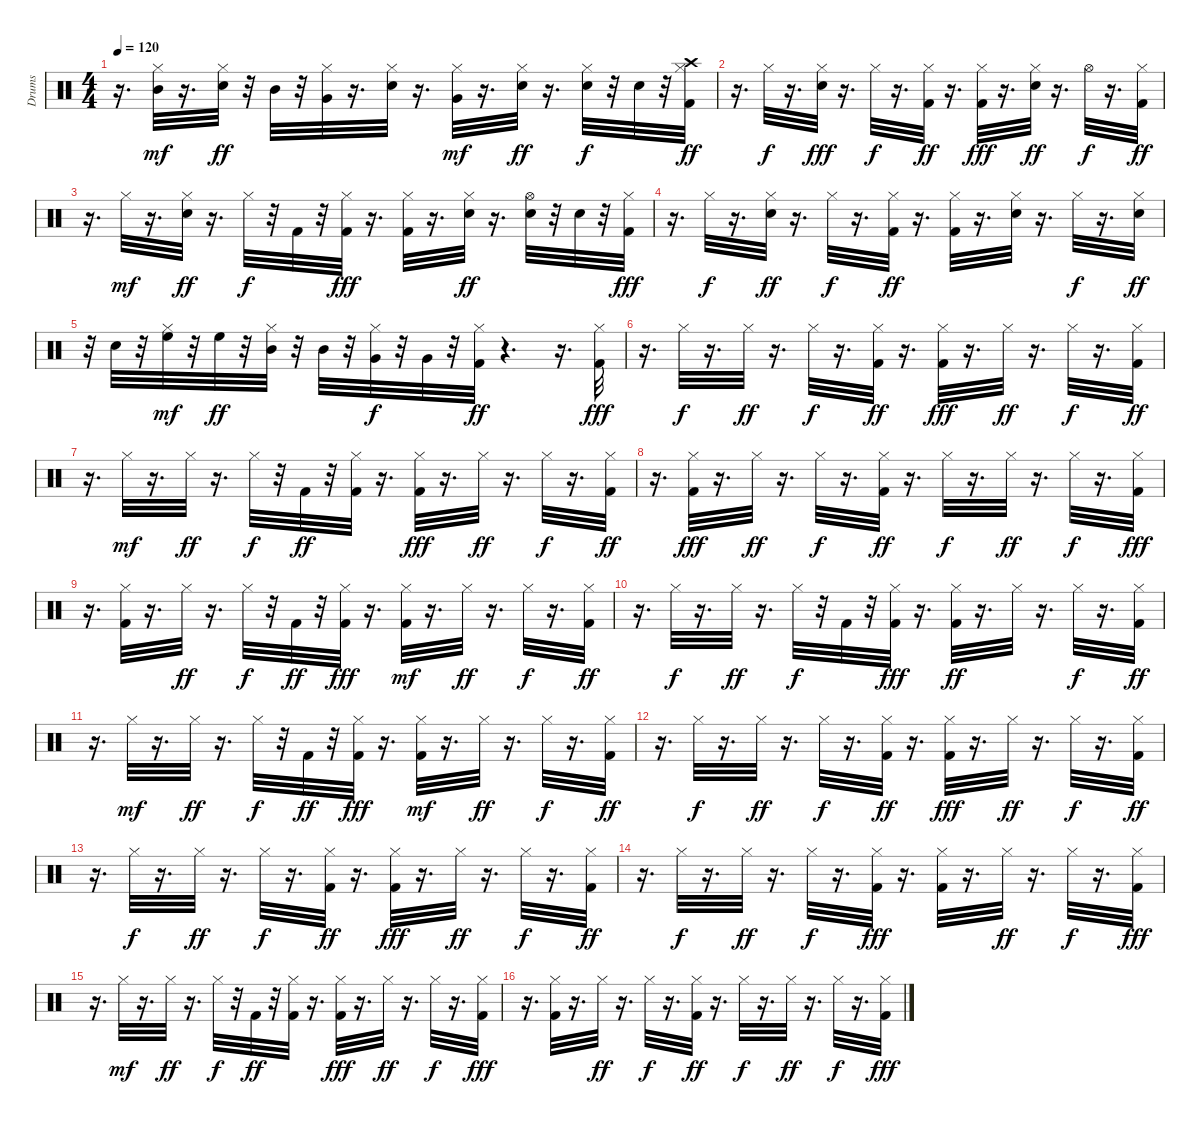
\track ("Drums" "Drums") {instrument percussion}
\staff {score}
\articulation defaults
\ts (4 4)
\tempo 120
\clef neutral
\ks c
r.16{d dy ff} ("Mid Tom (hit)" "Hi-Hat (closed)").32{dy mf} r.16{d} ("Snare (hit) 2" "Hi-Hat (closed)").32{dy ff} r.32 "Mid Tom (hit)".32 r.32 ("Very Low Tom (hit)" "Hi-Hat (closed)").32 r.16{d} ("Snare (hit) 2" "Hi-Hat (closed)").32 r.16{d} ("Very Low Tom (hit)" "Hi-Hat (closed)").32{dy mf} r.16{d} ("Snare (hit) 2" "Hi-Hat (closed)").32{dy ff} r.16{d} ("Snare (hit) 2" "Hi-Hat (closed)").32{dy f} r.32 "Snare (hit) 2".32 r.32 ("Crash high (hit)" "Kick (hit) 2" "Hi-Hat (closed)").32{dy ff} |
r.16{d} "Hi-Hat (closed)".32{dy f} r.16{d} ("Hi-Hat (closed)" "Snare (hit) 2").32{dy fff} r.16{d} "Hi-Hat (closed)".32{dy f} r.16{d} ("Kick (hit) 2" "Hi-Hat (closed)").32{dy ff} r.16{d} ("Hi-Hat (closed)" "Kick (hit) 2").32{dy fff} r.16{d} ("Snare (hit) 2" "Hi-Hat (closed)").32{dy ff} r.16{d} "Hi-Hat (open)".32{dy f} r.16{d} ("Kick (hit) 2" "Hi-Hat (closed)").32{dy ff} |
r.16{d} "Hi-Hat (closed)".32{dy mf} r.16{d} ("Snare (hit) 2" "Hi-Hat (closed)").32{dy ff} r.16{d} "Hi-Hat (closed)".32{dy f} r.32 "Kick (hit) 2".32 r.32 ("Hi-Hat (closed)" "Kick (hit) 2").32{dy fff} r.16{d} ("Hi-Hat (closed)" "Kick (hit) 2").32 r.16{d} ("Snare (hit) 2" "Hi-Hat (closed)").32{dy ff} r.16{d} ("Snare (hit) 2" "Hi-Hat (open)").32 r.32 "Snare (hit) 2".32 r.32 ("Hi-Hat (closed)" "Kick (hit) 2").32{dy fff} |
r.16{d} "Hi-Hat (closed)".32{dy f} r.16{d} ("Snare (hit) 2" "Hi-Hat (closed)").32{dy ff} r.16{d} "Hi-Hat (closed)".32{dy f} r.16{d} ("Kick (hit) 2" "Hi-Hat (closed)").32{dy ff} r.16{d} ("Hi-Hat (closed)" "Kick (hit) 2").32 r.16{d} ("Snare (hit) 2" "Hi-Hat (closed)").32 r.16{d} "Hi-Hat (closed)".32{dy f} r.16{d} ("Hi-Hat (closed)" "Snare (hit) 2").32{dy ff} |
r.32 "Snare (hit) 2".32 r.32 ("High Floor Tom (hit)" "Hi-Hat (closed)").32{dy mf} r.32 "High Floor Tom (hit)".32{dy ff} r.32 ("Mid Tom (hit)" "Hi-Hat (closed)").32 r.32 "Mid Tom (hit)".32 r.32 ("Very Low Tom (hit)" "Hi-Hat (closed)").32{dy f} r.32 "Very Low Tom (hit)".32 r.32 ("Kick (hit) 2" "Hi-Hat (closed)").32{dy ff} r.4{d} r.16{d} ("Hi-Hat (closed)" "Kick (hit) 2").32{dy fff} |
r.16{d} "Hi-Hat (closed)".32{dy f} r.16{d} "Hi-Hat (closed)".32{dy ff} r.16{d} "Hi-Hat (closed)".32{dy f} r.16{d} ("Kick (hit) 2" "Hi-Hat (closed)").32{dy ff} r.16{d} ("Kick (hit) 2" "Hi-Hat (closed)").32{dy fff} r.16{d} "Hi-Hat (closed)".32{dy ff} r.16{d} "Hi-Hat (closed)".32{dy f} r.16{d} ("Kick (hit) 2" "Hi-Hat (closed)").32{dy ff} |
r.16{d} "Hi-Hat (closed)".32{dy mf} r.16{d} "Hi-Hat (closed)".32{dy ff} r.16{d} "Hi-Hat (closed)".32{dy f} r.32 "Kick (hit) 2".32{dy ff} r.32 ("Kick (hit) 2" "Hi-Hat (closed)").32 r.16{d} ("Hi-Hat (closed)" "Kick (hit) 2").32{dy fff} r.16{d} "Hi-Hat (closed)".32{dy ff} r.16{d} "Hi-Hat (closed)".32{dy f} r.16{d} ("Kick (hit) 2" "Hi-Hat (closed)").32{dy ff} |
r.16{d} ("Hi-Hat (closed)" "Kick (hit) 2").32{dy fff} r.16{d} "Hi-Hat (closed)".32{dy ff} r.16{d} "Hi-Hat (closed)".32{dy f} r.16{d} ("Kick (hit) 2" "Hi-Hat (closed)").32{dy ff} r.16{d} "Hi-Hat (closed)".32{dy f} r.16{d} "Hi-Hat (closed)".32{dy ff} r.16{d} "Hi-Hat (closed)".32{dy f} r.16{d} ("Hi-Hat (closed)" "Kick (hit) 2").32{dy fff} |
r.16{d} ("Hi-Hat (closed)" "Kick (hit) 2").32 r.16{d} "Hi-Hat (closed)".32{dy ff} r.16{d} "Hi-Hat (closed)".32{dy f} r.32 "Kick (hit) 2".32{dy ff} r.32 ("Hi-Hat (closed)" "Kick (hit) 2").32{dy fff} r.16{d} ("Kick (hit) 2" "Hi-Hat (closed)").32{dy mf} r.16{d} "Hi-Hat (closed)".32{dy ff} r.16{d} "Hi-Hat (closed)".32{dy f} r.16{d} ("Kick (hit) 2" "Hi-Hat (closed)").32{dy ff} |
r.16{d} "Hi-Hat (closed)".32{dy f} r.16{d} "Hi-Hat (closed)".32{dy ff} r.16{d} "Hi-Hat (closed)".32{dy f} r.32 "Kick (hit) 2".32 r.32 ("Hi-Hat (closed)" "Kick (hit) 2").32{dy fff} r.16{d} ("Kick (hit) 2" "Hi-Hat (closed)").32{dy ff} r.16{d} "Hi-Hat (closed)".32 r.16{d} "Hi-Hat (closed)".32{dy f} r.16{d} ("Kick (hit) 2" "Hi-Hat (closed)").32{dy ff} |
r.16{d} "Hi-Hat (closed)".32{dy mf} r.16{d} "Hi-Hat (closed)".32{dy ff} r.16{d} "Hi-Hat (closed)".32{dy f} r.32 "Kick (hit) 2".32{dy ff} r.32 ("Hi-Hat (closed)" "Kick (hit) 2").32{dy fff} r.16{d} ("Kick (hit) 2" "Hi-Hat (closed)").32{dy mf} r.16{d} "Hi-Hat (closed)".32{dy ff} r.16{d} "Hi-Hat (closed)".32{dy f} r.16{d} ("Kick (hit) 2" "Hi-Hat (closed)").32{dy ff} |
r.16{d} "Hi-Hat (closed)".32{dy f} r.16{d} "Hi-Hat (closed)".32{dy ff} r.16{d} "Hi-Hat (closed)".32{dy f} r.16{d} ("Kick (hit) 2" "Hi-Hat (closed)").32{dy ff} r.16{d} ("Kick (hit) 2" "Hi-Hat (closed)").32{dy fff} r.16{d} "Hi-Hat (closed)".32{dy ff} r.16{d} "Hi-Hat (closed)".32{dy f} r.16{d} ("Kick (hit) 2" "Hi-Hat (closed)").32{dy ff} |
r.16{d} "Hi-Hat (closed)".32{dy f} r.16{d} "Hi-Hat (closed)".32{dy ff} r.16{d} "Hi-Hat (closed)".32{dy f} r.16{d} ("Kick (hit) 2" "Hi-Hat (closed)").32{dy ff} r.16{d} ("Hi-Hat (closed)" "Kick (hit) 2").32{dy fff} r.16{d} "Hi-Hat (closed)".32{dy ff} r.16{d} "Hi-Hat (closed)".32{dy f} r.16{d} ("Kick (hit) 2" "Hi-Hat (closed)").32{dy ff} |
r.16{d} "Hi-Hat (closed)".32{dy f} r.16{d} "Hi-Hat (closed)".32{dy ff} r.16{d} "Hi-Hat (closed)".32{dy f} r.16{d} ("Hi-Hat (closed)" "Kick (hit) 2").32{dy fff} r.16{d} ("Hi-Hat (closed)" "Kick (hit) 2").32 r.16{d} "Hi-Hat (closed)".32{dy ff} r.16{d} "Hi-Hat (closed)".32{dy f} r.16{d} ("Hi-Hat (closed)" "Kick (hit) 2").32{dy fff} |
r.16{d} "Hi-Hat (closed)".32{dy mf} r.16{d} "Hi-Hat (closed)".32{dy ff} r.16{d} "Hi-Hat (closed)".32{dy f} r.32 "Kick (hit) 2".32{dy ff} r.32 ("Kick (hit) 2" "Hi-Hat (closed)").32 r.16{d} ("Hi-Hat (closed)" "Kick (hit) 2").32{dy fff} r.16{d} "Hi-Hat (closed)".32{dy ff} r.16{d} "Hi-Hat (closed)".32{dy f} r.16{d} ("Hi-Hat (closed)" "Kick (hit) 2").32{dy fff} |
r.16{d} ("Kick (hit) 2" "Hi-Hat (closed)").32 r.16{d} "Hi-Hat (closed)".32{dy ff} r.16{d} "Hi-Hat (closed)".32{dy f} r.16{d} ("Kick (hit) 2" "Hi-Hat (closed)").32{dy ff} r.16{d} "Hi-Hat (closed)".32{dy f} r.16{d} "Hi-Hat (closed)".32{dy ff} r.16{d} "Hi-Hat (closed)".32{dy f} r.16{d} ("Hi-Hat (closed)" "Kick (hit) 2").32{dy fff}
